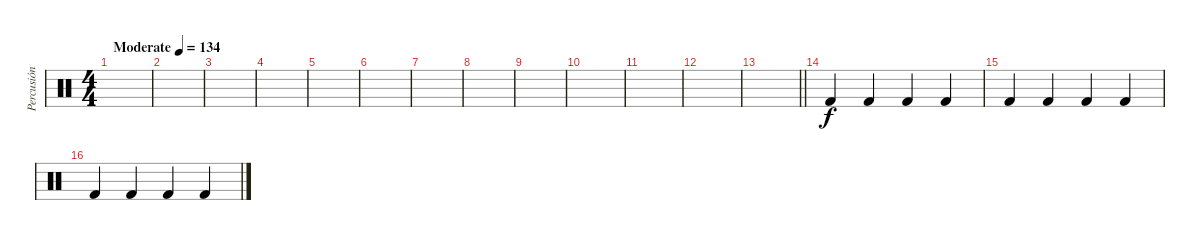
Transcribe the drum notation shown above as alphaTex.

\track ("Percusión" "Percusión") {instrument percussion}
\staff {score}
\articulation defaults
\ts (4 4)
\tempo (134 "Moderate")
\clef neutral
\ks c
|
|
|
|
|
|
|
|
|
|
|
|
\barLineRight lightlight
|
"Kick (hit) 2".4 "Kick (hit) 2".4 "Kick (hit) 2".4 "Kick (hit) 2".4 |
"Kick (hit) 2".4 "Kick (hit) 2".4 "Kick (hit) 2".4 "Kick (hit) 2".4 |
"Kick (hit) 2".4 "Kick (hit) 2".4 "Kick (hit) 2".4 "Kick (hit) 2".4
